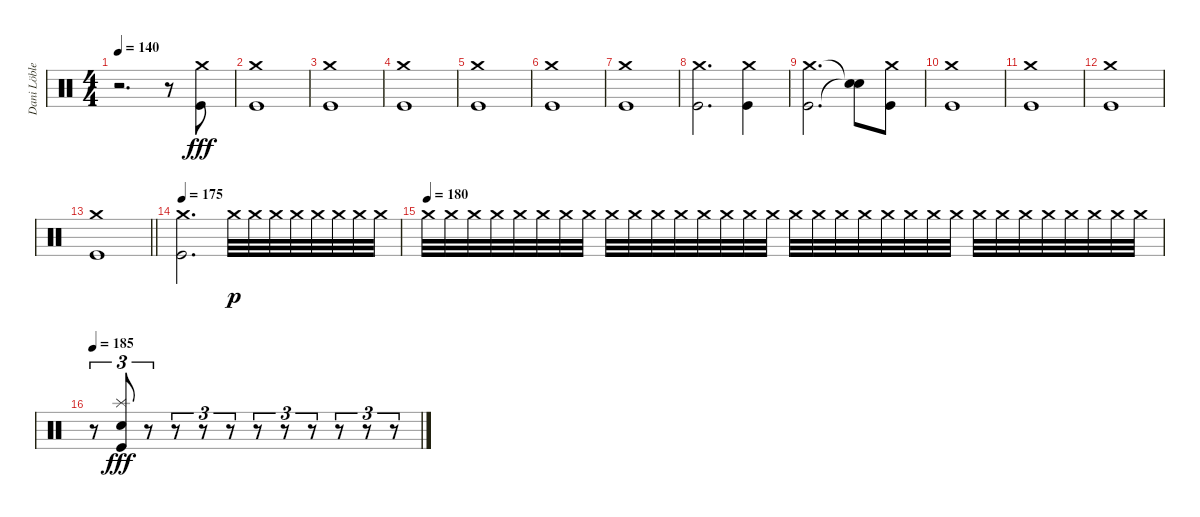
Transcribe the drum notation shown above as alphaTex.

\track ("Dani Löble" "Dani Löble") {instrument percussion}
\staff {score}
\articulation defaults
\ts (4 4)
\tempo 140
\clef neutral
\ks c
r.2{d dy ff} r.8 ("Crash medium (hit)" "Kick (hit)").8{dy fff} |
("Crash medium (hit)" "Kick (hit)").1 |
("Crash medium (hit)" "Kick (hit)").1 |
("Crash medium (hit)" "Kick (hit)").1 |
("Crash medium (hit)" "Kick (hit)").1 |
("Crash medium (hit)" "Kick (hit)").1 |
("Crash medium (hit)" "Kick (hit)").1 |
("Crash medium (hit)" "Kick (hit)").2{d} ("Crash medium (hit)" "Kick (hit)").4 |
("Crash medium (hit)" "Kick (hit)").2{d} ("Snare (hit)"{t} "Snare (hit)"{t}).8 ("Crash medium (hit)" "Kick (hit)").8 |
("Crash medium (hit)" "Kick (hit)").1 |
("Crash medium (hit)" "Kick (hit)").1 |
("Crash medium (hit)" "Kick (hit)").1 |
\barLineRight lightlight
("Crash medium (hit)" "Kick (hit)").1 |
\section ("" "")
\tempo 175
("Crash medium (hit)" "Kick (hit)").2{d} "Crash medium (hit)".32{dy p} "Crash medium (hit)".32 "Crash medium (hit)".32 "Crash medium (hit)".32 "Crash medium (hit)".32 "Crash medium (hit)".32 "Crash medium (hit)".32 "Crash medium (hit)".32 |
\tempo (180)
"Crash medium (hit)".32 "Crash medium (hit)".32 "Crash medium (hit)".32 "Crash medium (hit)".32 "Crash medium (hit)".32 "Crash medium (hit)".32 "Crash medium (hit)".32 "Crash medium (hit)".32 "Crash medium (hit)".32 "Crash medium (hit)".32 "Crash medium (hit)".32 "Crash medium (hit)".32 "Crash medium (hit)".32 "Crash medium (hit)".32 "Crash medium (hit)".32 "Crash medium (hit)".32 "Crash medium (hit)".32 "Crash medium (hit)".32 "Crash medium (hit)".32 "Crash medium (hit)".32 "Crash medium (hit)".32 "Crash medium (hit)".32 "Crash medium (hit)".32 "Crash medium (hit)".32 "Crash medium (hit)".32 "Crash medium (hit)".32 "Crash medium (hit)".32 "Crash medium (hit)".32 "Crash medium (hit)".32 "Crash medium (hit)".32 "Crash medium (hit)".32 "Crash medium (hit)".32 |
\tempo 185
r.8{tu (3 2)} ("Splash (hit)" "Electric Snare (hit)" "Kick (hit)").8{tu (3 2) dy fff} r.8{tu (3 2)} r.8{tu (3 2)} r.8{tu (3 2)} r.8{tu (3 2)} r.8{tu (3 2)} r.8{tu (3 2)} r.8{tu (3 2)} r.8{tu (3 2)} r.8{tu (3 2)} r.8{tu (3 2)}
